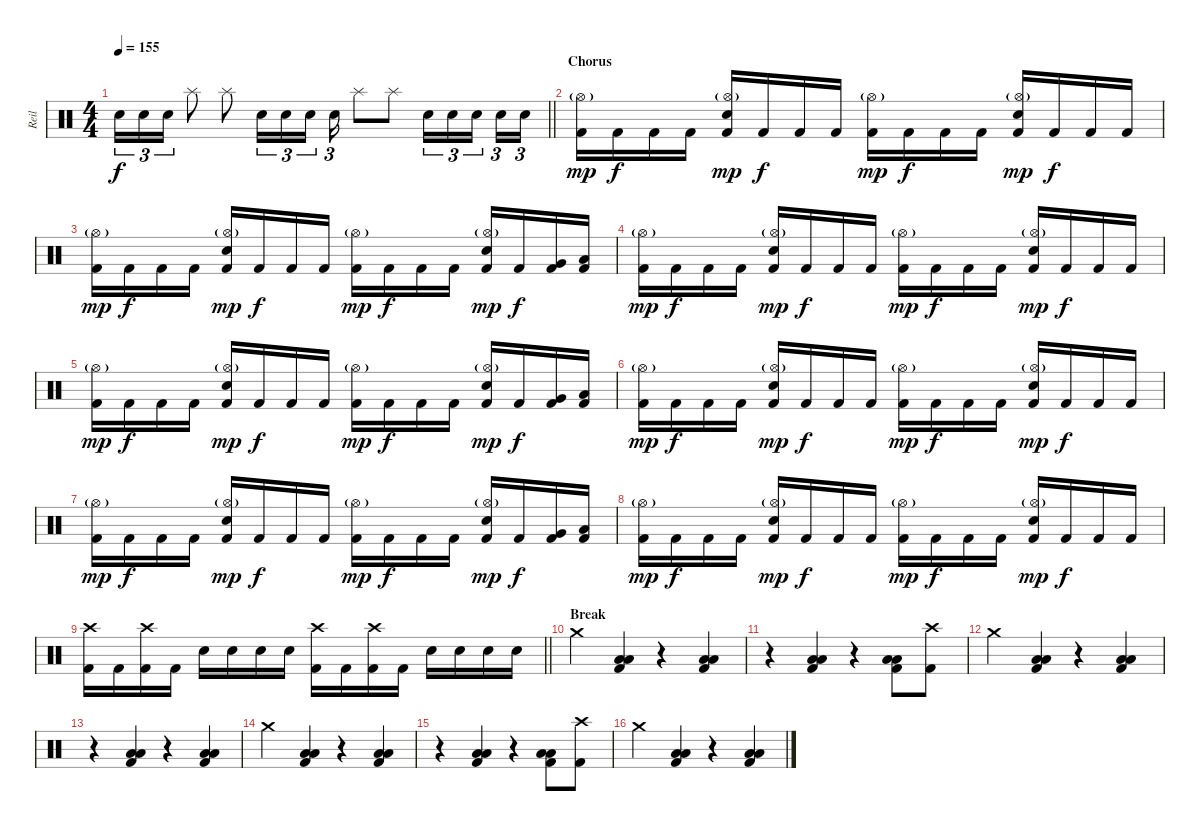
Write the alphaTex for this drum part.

\track ("Reil" "Reil") {instrument percussion}
\staff {score}
\articulation defaults
\ts (4 4)
\tempo 155
\clef neutral
\barLineRight lightlight
\ks c "Electric Snare (hit)".16{tu (3 2) dy f} "Electric Snare (hit)".16{tu (3 2)} "Electric Snare (hit)".16{tu (3 2)} "Splash (hit)".8 "Splash (hit)".8 "Electric Snare (hit)".16{tu (3 2)} "Electric Snare (hit)".16{tu (3 2)} "Electric Snare (hit)".16{tu (3 2)} "Electric Snare (hit)".16{tu (3 2)} "Splash (hit)".8 "Splash (hit)".8 "Electric Snare (hit)".16{tu (3 2)} "Electric Snare (hit)".16{tu (3 2)} "Electric Snare (hit)".16{tu (3 2) beam splitsecondary} "Electric Snare (hit)".16{tu (3 2)} "Electric Snare (hit)".16{tu (3 2)}
|
\section ("" "Chorus")
("Hi-Hat (open)"{g} "Kick (hit) 2").16{dy mp} "Kick (hit) 2".16{dy f} "Kick (hit) 2".16 "Kick (hit) 2".16 ("Hi-Hat (open)"{g} "Electric Snare (hit)" "Kick (hit) 2").16{dy mp} "Kick (hit) 2".16{dy f} "Kick (hit) 2".16 "Kick (hit) 2".16 ("Hi-Hat (open)"{g} "Kick (hit) 2").16{dy mp} "Kick (hit) 2".16{dy f} "Kick (hit) 2".16 "Kick (hit) 2".16 ("Hi-Hat (open)"{g} "Electric Snare (hit)" "Kick (hit) 2").16{dy mp} "Kick (hit) 2".16{dy f} "Kick (hit) 2".16 "Kick (hit) 2".16 |
("Hi-Hat (open)"{g} "Kick (hit) 2").16{dy mp} "Kick (hit) 2".16{dy f} "Kick (hit) 2".16 "Kick (hit) 2".16 ("Hi-Hat (open)"{g} "Electric Snare (hit)" "Kick (hit) 2").16{dy mp} "Kick (hit) 2".16{dy f} "Kick (hit) 2".16 "Kick (hit) 2".16 ("Hi-Hat (open)"{g} "Kick (hit) 2").16{dy mp} "Kick (hit) 2".16{dy f} "Kick (hit) 2".16 "Kick (hit) 2".16 ("Hi-Hat (open)"{g} "Electric Snare (hit)" "Kick (hit) 2").16{dy mp} "Kick (hit) 2".16{dy f} ("Very Low Tom (hit)" "Kick (hit) 2").16 ("Low Floor Tom (hit)" "Kick (hit) 2").16 |
("Hi-Hat (open)"{g} "Kick (hit) 2").16{dy mp} "Kick (hit) 2".16{dy f} "Kick (hit) 2".16 "Kick (hit) 2".16 ("Hi-Hat (open)"{g} "Electric Snare (hit)" "Kick (hit) 2").16{dy mp} "Kick (hit) 2".16{dy f} "Kick (hit) 2".16 "Kick (hit) 2".16 ("Hi-Hat (open)"{g} "Kick (hit) 2").16{dy mp} "Kick (hit) 2".16{dy f} "Kick (hit) 2".16 "Kick (hit) 2".16 ("Hi-Hat (open)"{g} "Electric Snare (hit)" "Kick (hit) 2").16{dy mp} "Kick (hit) 2".16{dy f} "Kick (hit) 2".16 "Kick (hit) 2".16 |
("Hi-Hat (open)"{g} "Kick (hit) 2").16{dy mp} "Kick (hit) 2".16{dy f} "Kick (hit) 2".16 "Kick (hit) 2".16 ("Hi-Hat (open)"{g} "Electric Snare (hit)" "Kick (hit) 2").16{dy mp} "Kick (hit) 2".16{dy f} "Kick (hit) 2".16 "Kick (hit) 2".16 ("Hi-Hat (open)"{g} "Kick (hit) 2").16{dy mp} "Kick (hit) 2".16{dy f} "Kick (hit) 2".16 "Kick (hit) 2".16 ("Hi-Hat (open)"{g} "Electric Snare (hit)" "Kick (hit) 2").16{dy mp} "Kick (hit) 2".16{dy f} ("Very Low Tom (hit)" "Kick (hit) 2").16 ("Low Floor Tom (hit)" "Kick (hit) 2").16 |
("Hi-Hat (open)"{g} "Kick (hit) 2").16{dy mp} "Kick (hit) 2".16{dy f} "Kick (hit) 2".16 "Kick (hit) 2".16 ("Hi-Hat (open)"{g} "Electric Snare (hit)" "Kick (hit) 2").16{dy mp} "Kick (hit) 2".16{dy f} "Kick (hit) 2".16 "Kick (hit) 2".16 ("Hi-Hat (open)"{g} "Kick (hit) 2").16{dy mp} "Kick (hit) 2".16{dy f} "Kick (hit) 2".16 "Kick (hit) 2".16 ("Hi-Hat (open)"{g} "Electric Snare (hit)" "Kick (hit) 2").16{dy mp} "Kick (hit) 2".16{dy f} "Kick (hit) 2".16 "Kick (hit) 2".16 |
("Hi-Hat (open)"{g} "Kick (hit) 2").16{dy mp} "Kick (hit) 2".16{dy f} "Kick (hit) 2".16 "Kick (hit) 2".16 ("Hi-Hat (open)"{g} "Electric Snare (hit)" "Kick (hit) 2").16{dy mp} "Kick (hit) 2".16{dy f} "Kick (hit) 2".16 "Kick (hit) 2".16 ("Hi-Hat (open)"{g} "Kick (hit) 2").16{dy mp} "Kick (hit) 2".16{dy f} "Kick (hit) 2".16 "Kick (hit) 2".16 ("Hi-Hat (open)"{g} "Electric Snare (hit)" "Kick (hit) 2").16{dy mp} "Kick (hit) 2".16{dy f} ("Very Low Tom (hit)" "Kick (hit) 2").16 ("Low Floor Tom (hit)" "Kick (hit) 2").16 |
("Hi-Hat (open)"{g} "Kick (hit) 2").16{dy mp} "Kick (hit) 2".16{dy f} "Kick (hit) 2".16 "Kick (hit) 2".16 ("Hi-Hat (open)"{g} "Electric Snare (hit)" "Kick (hit) 2").16{dy mp} "Kick (hit) 2".16{dy f} "Kick (hit) 2".16 "Kick (hit) 2".16 ("Hi-Hat (open)"{g} "Kick (hit) 2").16{dy mp} "Kick (hit) 2".16{dy f} "Kick (hit) 2".16 "Kick (hit) 2".16 ("Hi-Hat (open)"{g} "Electric Snare (hit)" "Kick (hit) 2").16{dy mp} "Kick (hit) 2".16{dy f} "Kick (hit) 2".16 "Kick (hit) 2".16 |
\barLineRight lightlight
("Crash high (hit)" "Kick (hit) 2").16 "Kick (hit) 2".16 ("Crash high (hit)" "Kick (hit) 2").16 "Kick (hit) 2".16 "Snare (hit) 2".16 "Snare (hit) 2".16 "Snare (hit) 2".16 "Snare (hit) 2".16 ("Crash high (hit)" "Kick (hit) 2").16 "Kick (hit) 2".16 ("Crash high (hit)" "Kick (hit) 2").16 "Kick (hit) 2".16 "Snare (hit) 2".16 "Snare (hit) 2".16 "Snare (hit) 2".16 "Snare (hit) 2".16 |
\section ("" "Break")
"Crash medium (hit)".4 ("Low Floor Tom (hit)" "Low Floor Tom (hit)" "Kick (hit) 2").4 r.4 ("Low Floor Tom (hit)" "Low Floor Tom (hit)" "Kick (hit) 2").4 |
r.4 ("Low Floor Tom (hit)" "Low Floor Tom (hit)" "Kick (hit) 2").4 r.4 ("Low Floor Tom (hit)" "Low Floor Tom (hit)" "Kick (hit) 2").8 ("Crash high (hit)" "Kick (hit) 2").8 |
"Crash medium (hit)".4 ("Low Floor Tom (hit)" "Low Floor Tom (hit)" "Kick (hit) 2").4 r.4 ("Low Floor Tom (hit)" "Low Floor Tom (hit)" "Kick (hit) 2").4 |
r.4 ("Low Floor Tom (hit)" "Low Floor Tom (hit)" "Kick (hit) 2").4 r.4 ("Low Floor Tom (hit)" "Low Floor Tom (hit)" "Kick (hit) 2").4 |
"Crash medium (hit)".4 ("Low Floor Tom (hit)" "Low Floor Tom (hit)" "Kick (hit) 2").4 r.4 ("Low Floor Tom (hit)" "Low Floor Tom (hit)" "Kick (hit) 2").4 |
r.4 ("Low Floor Tom (hit)" "Low Floor Tom (hit)" "Kick (hit) 2").4 r.4 ("Low Floor Tom (hit)" "Low Floor Tom (hit)" "Kick (hit) 2").8 ("Crash high (hit)" "Kick (hit) 2").8 |
"Crash medium (hit)".4 ("Low Floor Tom (hit)" "Low Floor Tom (hit)" "Kick (hit) 2").4 r.4 ("Low Floor Tom (hit)" "Low Floor Tom (hit)" "Kick (hit) 2").4
